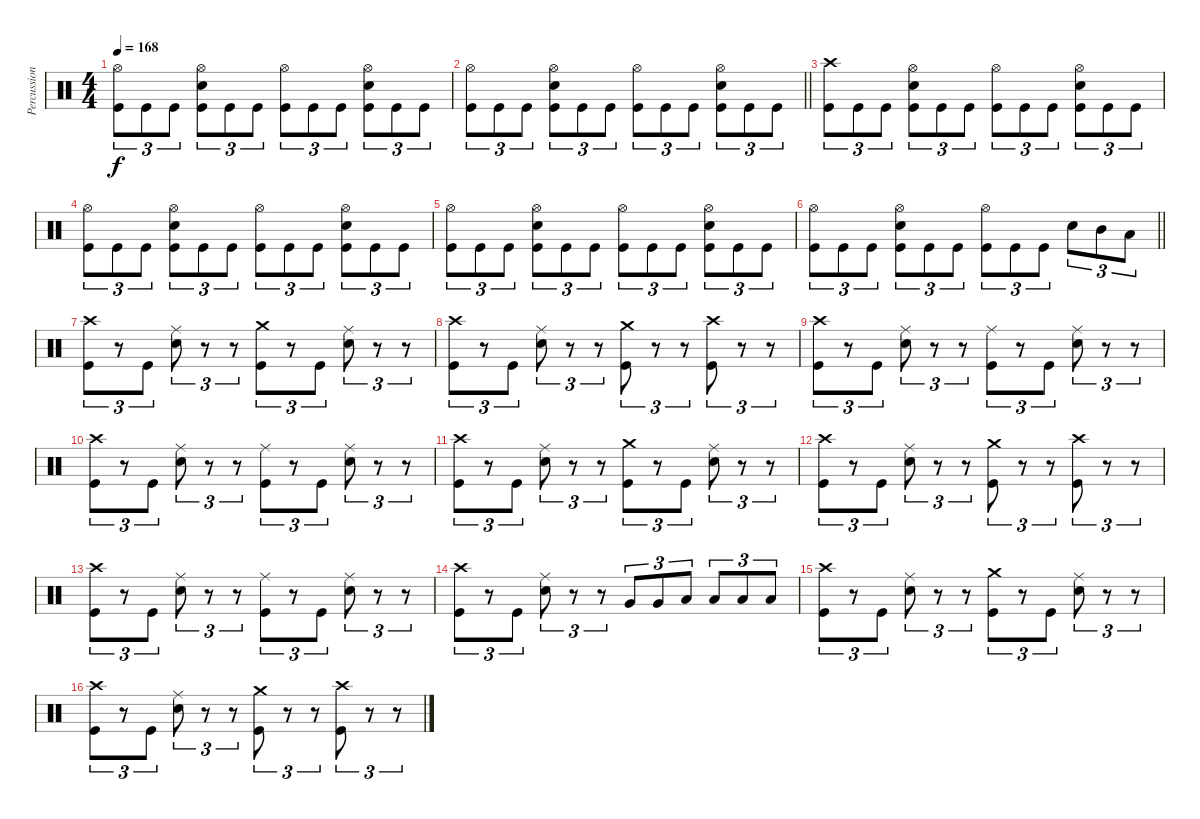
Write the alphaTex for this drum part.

\track ("Percussion" "Percussion") {instrument percussion}
\staff {score}
\articulation defaults
\ts (4 4)
\tempo 168
\clef neutral
\ks c
("Hi-Hat (open)" "Kick (hit)").8{tu (3 2) dy f} "Kick (hit)".8{tu (3 2)} "Kick (hit)".8{tu (3 2)} ("Hi-Hat (open)" "Electric Snare (hit)" "Kick (hit)").8{tu (3 2)} "Kick (hit)".8{tu (3 2)} "Kick (hit)".8{tu (3 2)} ("Hi-Hat (open)" "Kick (hit)").8{tu (3 2)} "Kick (hit)".8{tu (3 2)} "Kick (hit)".8{tu (3 2)} ("Hi-Hat (open)" "Electric Snare (hit)" "Kick (hit)").8{tu (3 2)} "Kick (hit)".8{tu (3 2)} "Kick (hit)".8{tu (3 2)} |
\barLineRight lightlight
("Hi-Hat (open)" "Kick (hit)").8{tu (3 2)} "Kick (hit)".8{tu (3 2)} "Kick (hit)".8{tu (3 2)} ("Hi-Hat (open)" "Electric Snare (hit)" "Kick (hit)").8{tu (3 2)} "Kick (hit)".8{tu (3 2)} "Kick (hit)".8{tu (3 2)} ("Hi-Hat (open)" "Kick (hit)").8{tu (3 2)} "Kick (hit)".8{tu (3 2)} "Kick (hit)".8{tu (3 2)} ("Hi-Hat (open)" "Electric Snare (hit)" "Kick (hit)").8{tu (3 2)} "Kick (hit)".8{tu (3 2)} "Kick (hit)".8{tu (3 2)} |
("Crash high (hit)" "Kick (hit)").8{tu (3 2)} "Kick (hit)".8{tu (3 2)} "Kick (hit)".8{tu (3 2)} ("Hi-Hat (open)" "Electric Snare (hit)" "Kick (hit)").8{tu (3 2)} "Kick (hit)".8{tu (3 2)} "Kick (hit)".8{tu (3 2)} ("Hi-Hat (open)" "Kick (hit)").8{tu (3 2)} "Kick (hit)".8{tu (3 2)} "Kick (hit)".8{tu (3 2)} ("Hi-Hat (open)" "Electric Snare (hit)" "Kick (hit)").8{tu (3 2)} "Kick (hit)".8{tu (3 2)} "Kick (hit)".8{tu (3 2)} |
("Hi-Hat (open)" "Kick (hit)").8{tu (3 2)} "Kick (hit)".8{tu (3 2)} "Kick (hit)".8{tu (3 2)} ("Hi-Hat (open)" "Electric Snare (hit)" "Kick (hit)").8{tu (3 2)} "Kick (hit)".8{tu (3 2)} "Kick (hit)".8{tu (3 2)} ("Hi-Hat (open)" "Kick (hit)").8{tu (3 2)} "Kick (hit)".8{tu (3 2)} "Kick (hit)".8{tu (3 2)} ("Hi-Hat (open)" "Electric Snare (hit)" "Kick (hit)").8{tu (3 2)} "Kick (hit)".8{tu (3 2)} "Kick (hit)".8{tu (3 2)} |
("Hi-Hat (open)" "Kick (hit)").8{tu (3 2)} "Kick (hit)".8{tu (3 2)} "Kick (hit)".8{tu (3 2)} ("Hi-Hat (open)" "Electric Snare (hit)" "Kick (hit)").8{tu (3 2)} "Kick (hit)".8{tu (3 2)} "Kick (hit)".8{tu (3 2)} ("Hi-Hat (open)" "Kick (hit)").8{tu (3 2)} "Kick (hit)".8{tu (3 2)} "Kick (hit)".8{tu (3 2)} ("Hi-Hat (open)" "Electric Snare (hit)" "Kick (hit)").8{tu (3 2)} "Kick (hit)".8{tu (3 2)} "Kick (hit)".8{tu (3 2)} |
\barLineRight lightlight
("Hi-Hat (open)" "Kick (hit)").8{tu (3 2)} "Kick (hit)".8{tu (3 2)} "Kick (hit)".8{tu (3 2)} ("Hi-Hat (open)" "Electric Snare (hit)" "Kick (hit)").8{tu (3 2)} "Kick (hit)".8{tu (3 2)} "Kick (hit)".8{tu (3 2)} ("Hi-Hat (open)" "Kick (hit)").8{tu (3 2)} "Kick (hit)".8{tu (3 2)} "Kick (hit)".8{tu (3 2)} "Electric Snare (hit)".8{tu (3 2)} "Mid Tom (hit)".8{tu (3 2)} "Low Tom (hit)".8{tu (3 2)} |
("Crash high (hit)" "Kick (hit)").8{tu (3 2)} r.8{tu (3 2)} "Kick (hit)".8{tu (3 2)} ("Ride (middle)" "Electric Snare (hit)").8{tu (3 2)} r.8{tu (3 2)} r.8{tu (3 2)} ("Crash medium (hit)" "Kick (hit)").8{tu (3 2)} r.8{tu (3 2)} "Kick (hit)".8{tu (3 2)} ("Ride (middle)" "Electric Snare (hit)").8{tu (3 2)} r.8{tu (3 2)} r.8{tu (3 2)} |
("Crash high (hit)" "Kick (hit)").8{tu (3 2)} r.8{tu (3 2)} "Kick (hit)".8{tu (3 2)} ("Ride (middle)" "Electric Snare (hit)").8{tu (3 2)} r.8{tu (3 2)} r.8{tu (3 2)} ("Crash medium (hit)" "Kick (hit)").8{tu (3 2)} r.8{tu (3 2)} r.8{tu (3 2)} ("Crash high (hit)" "Kick (hit)").8{tu (3 2)} r.8{tu (3 2)} r.8{tu (3 2)} |
("Crash high (hit)" "Kick (hit)").8{tu (3 2)} r.8{tu (3 2)} "Kick (hit)".8{tu (3 2)} ("Ride (middle)" "Electric Snare (hit)").8{tu (3 2)} r.8{tu (3 2)} r.8{tu (3 2)} ("Ride (middle)" "Kick (hit)").8{tu (3 2)} r.8{tu (3 2)} "Kick (hit)".8{tu (3 2)} ("Ride (middle)" "Electric Snare (hit)").8{tu (3 2)} r.8{tu (3 2)} r.8{tu (3 2)} |
("Crash high (hit)" "Kick (hit)").8{tu (3 2)} r.8{tu (3 2)} "Kick (hit)".8{tu (3 2)} ("Ride (middle)" "Electric Snare (hit)").8{tu (3 2)} r.8{tu (3 2)} r.8{tu (3 2)} ("Ride (middle)" "Kick (hit)").8{tu (3 2)} r.8{tu (3 2)} "Kick (hit)".8{tu (3 2)} ("Ride (middle)" "Electric Snare (hit)").8{tu (3 2)} r.8{tu (3 2)} r.8{tu (3 2)} |
("Crash high (hit)" "Kick (hit)").8{tu (3 2)} r.8{tu (3 2)} "Kick (hit)".8{tu (3 2)} ("Ride (middle)" "Electric Snare (hit)").8{tu (3 2)} r.8{tu (3 2)} r.8{tu (3 2)} ("Crash medium (hit)" "Kick (hit)").8{tu (3 2)} r.8{tu (3 2)} "Kick (hit)".8{tu (3 2)} ("Ride (middle)" "Electric Snare (hit)").8{tu (3 2)} r.8{tu (3 2)} r.8{tu (3 2)} |
("Crash high (hit)" "Kick (hit)").8{tu (3 2)} r.8{tu (3 2)} "Kick (hit)".8{tu (3 2)} ("Ride (middle)" "Electric Snare (hit)").8{tu (3 2)} r.8{tu (3 2)} r.8{tu (3 2)} ("Crash medium (hit)" "Kick (hit)").8{tu (3 2)} r.8{tu (3 2)} r.8{tu (3 2)} ("Crash high (hit)" "Kick (hit)").8{tu (3 2)} r.8{tu (3 2)} r.8{tu (3 2)} |
("Crash high (hit)" "Kick (hit)").8{tu (3 2)} r.8{tu (3 2)} "Kick (hit)".8{tu (3 2)} ("Ride (middle)" "Electric Snare (hit)").8{tu (3 2)} r.8{tu (3 2)} r.8{tu (3 2)} ("Ride (middle)" "Kick (hit)").8{tu (3 2)} r.8{tu (3 2)} "Kick (hit)".8{tu (3 2)} ("Ride (middle)" "Electric Snare (hit)").8{tu (3 2)} r.8{tu (3 2)} r.8{tu (3 2)} |
("Crash high (hit)" "Kick (hit)").8{tu (3 2)} r.8{tu (3 2)} "Kick (hit)".8{tu (3 2)} ("Ride (middle)" "Electric Snare (hit)").8{tu (3 2)} r.8{tu (3 2)} r.8{tu (3 2)} "Very Low Tom (hit)".8{tu (3 2)} "Very Low Tom (hit)".8{tu (3 2)} "Low Floor Tom (hit)".8{tu (3 2)} "Low Floor Tom (hit)".8{tu (3 2)} "Low Floor Tom (hit)".8{tu (3 2)} "Low Floor Tom (hit)".8{tu (3 2)} |
("Crash high (hit)" "Kick (hit)").8{tu (3 2)} r.8{tu (3 2)} "Kick (hit)".8{tu (3 2)} ("Ride (middle)" "Electric Snare (hit)").8{tu (3 2)} r.8{tu (3 2)} r.8{tu (3 2)} ("Crash medium (hit)" "Kick (hit)").8{tu (3 2)} r.8{tu (3 2)} "Kick (hit)".8{tu (3 2)} ("Ride (middle)" "Electric Snare (hit)").8{tu (3 2)} r.8{tu (3 2)} r.8{tu (3 2)} |
("Crash high (hit)" "Kick (hit)").8{tu (3 2)} r.8{tu (3 2)} "Kick (hit)".8{tu (3 2)} ("Ride (middle)" "Electric Snare (hit)").8{tu (3 2)} r.8{tu (3 2)} r.8{tu (3 2)} ("Crash medium (hit)" "Kick (hit)").8{tu (3 2)} r.8{tu (3 2)} r.8{tu (3 2)} ("Crash high (hit)" "Kick (hit)").8{tu (3 2)} r.8{tu (3 2)} r.8{tu (3 2)}
